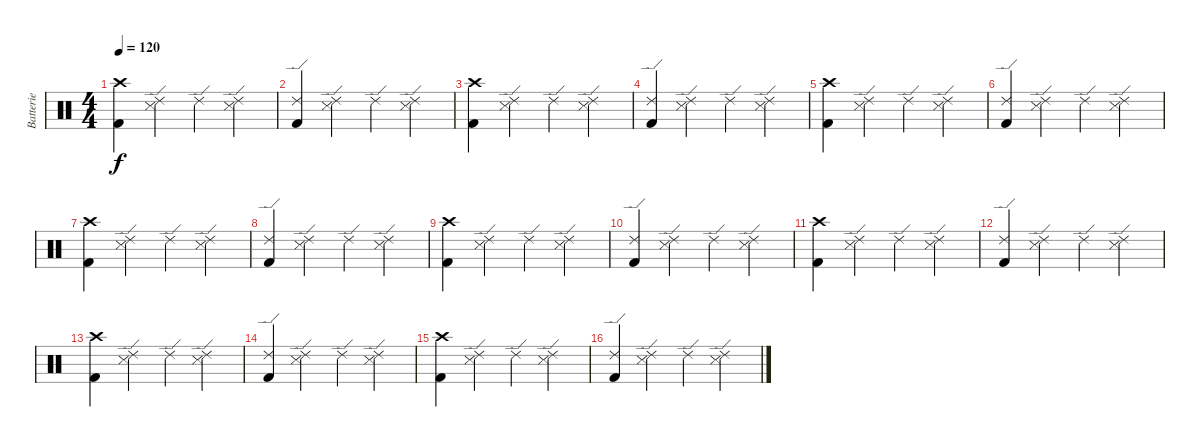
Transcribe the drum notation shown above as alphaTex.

\track ("Batterie" "Batterie") {instrument percussion}
\staff {score}
\articulation defaults
\ts (4 4)
\tempo 120
\clef neutral
\ks c
("Crash high (hit)" "Kick (hit) 2").4{dy f} ("Ride (edge) 2" "Snare (side stick) 3").4 "Ride (edge) 2".4 ("Ride (edge) 2" "Snare (side stick) 3").4 |
("Ride (edge) 2" "Kick (hit) 2").4 ("Ride (edge) 2" "Snare (side stick) 3").4 "Ride (edge) 2".4 ("Ride (edge) 2" "Snare (side stick) 3").4 |
("Crash high (hit)" "Kick (hit) 2").4 ("Ride (edge) 2" "Snare (side stick) 3").4 "Ride (edge) 2".4 ("Ride (edge) 2" "Snare (side stick) 3").4 |
("Ride (edge) 2" "Kick (hit) 2").4 ("Ride (edge) 2" "Snare (side stick) 3").4 "Ride (edge) 2".4 ("Ride (edge) 2" "Snare (side stick) 3").4 |
("Crash high (hit)" "Kick (hit) 2").4 ("Ride (edge) 2" "Snare (side stick) 3").4 "Ride (edge) 2".4 ("Ride (edge) 2" "Snare (side stick) 3").4 |
("Ride (edge) 2" "Kick (hit) 2").4 ("Ride (edge) 2" "Snare (side stick) 3").4 "Ride (edge) 2".4 ("Ride (edge) 2" "Snare (side stick) 3").4 |
("Crash high (hit)" "Kick (hit) 2").4 ("Ride (edge) 2" "Snare (side stick) 3").4 "Ride (edge) 2".4 ("Ride (edge) 2" "Snare (side stick) 3").4 |
("Ride (edge) 2" "Kick (hit) 2").4 ("Ride (edge) 2" "Snare (side stick) 3").4 "Ride (edge) 2".4 ("Ride (edge) 2" "Snare (side stick) 3").4 |
("Crash high (hit)" "Kick (hit) 2").4 ("Ride (edge) 2" "Snare (side stick) 3").4 "Ride (edge) 2".4 ("Ride (edge) 2" "Snare (side stick) 3").4 |
("Ride (edge) 2" "Kick (hit) 2").4 ("Ride (edge) 2" "Snare (side stick) 3").4 "Ride (edge) 2".4 ("Ride (edge) 2" "Snare (side stick) 3").4 |
("Crash high (hit)" "Kick (hit) 2").4 ("Ride (edge) 2" "Snare (side stick) 3").4 "Ride (edge) 2".4 ("Ride (edge) 2" "Snare (side stick) 3").4 |
("Ride (edge) 2" "Kick (hit) 2").4 ("Ride (edge) 2" "Snare (side stick) 3").4 "Ride (edge) 2".4 ("Ride (edge) 2" "Snare (side stick) 3").4 |
("Crash high (hit)" "Kick (hit) 2").4 ("Ride (edge) 2" "Snare (side stick) 3").4 "Ride (edge) 2".4 ("Ride (edge) 2" "Snare (side stick) 3").4 |
("Ride (edge) 2" "Kick (hit) 2").4 ("Ride (edge) 2" "Snare (side stick) 3").4 "Ride (edge) 2".4 ("Ride (edge) 2" "Snare (side stick) 3").4 |
("Crash high (hit)" "Kick (hit) 2").4 ("Ride (edge) 2" "Snare (side stick) 3").4 "Ride (edge) 2".4 ("Ride (edge) 2" "Snare (side stick) 3").4 |
("Ride (edge) 2" "Kick (hit) 2").4 ("Ride (edge) 2" "Snare (side stick) 3").4 "Ride (edge) 2".4 ("Ride (edge) 2" "Snare (side stick) 3").4
